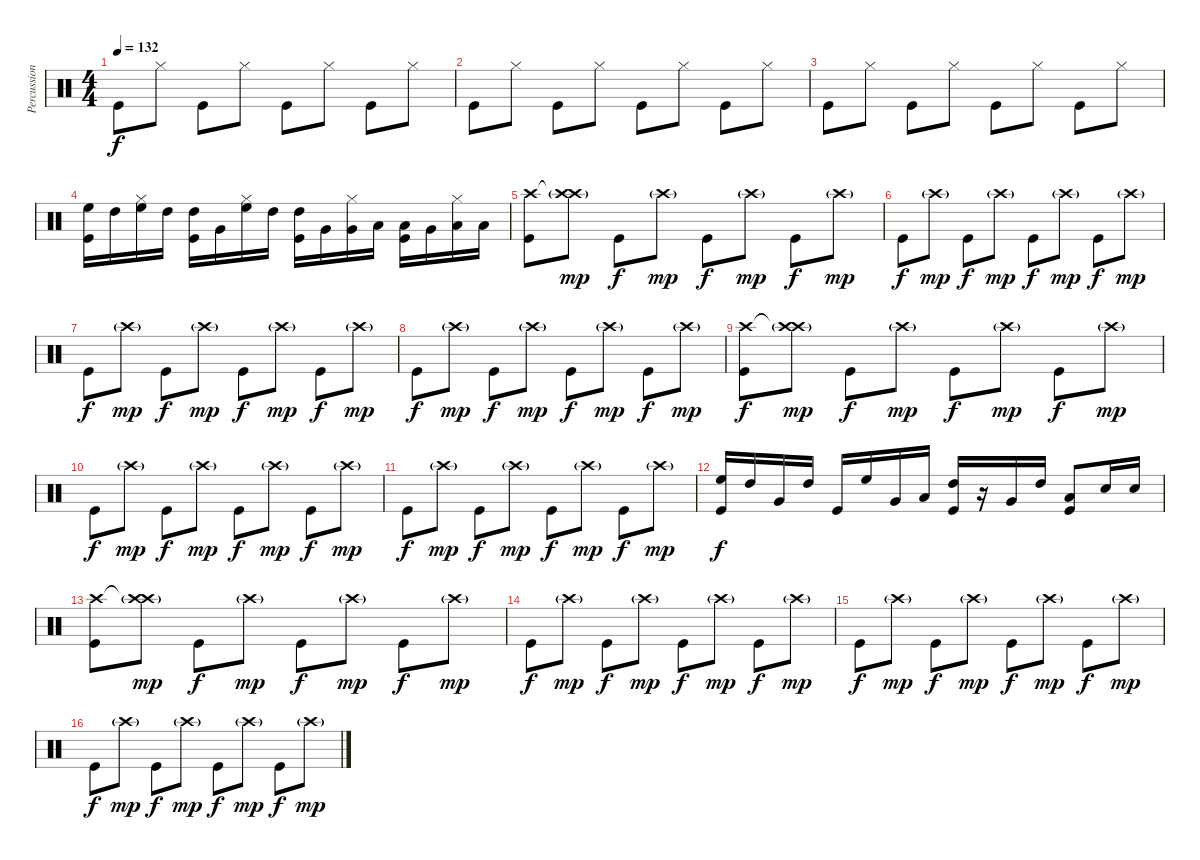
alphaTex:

\track ("Percussion" "Percussion") {instrument percussion}
\staff {score}
\articulation defaults
\ts (4 4)
\tempo 132
\clef neutral
\ks c "Kick (hit)".8{dy f} "Hi-Hat (closed)".8 "Kick (hit)".8 "Hi-Hat (closed)".8 "Kick (hit)".8 "Hi-Hat (closed)".8 "Kick (hit)".8 "Hi-Hat (closed)".8
|
"Kick (hit)".8 "Hi-Hat (closed)".8 "Kick (hit)".8 "Hi-Hat (closed)".8 "Kick (hit)".8 "Hi-Hat (closed)".8 "Kick (hit)".8 "Hi-Hat (closed)".8 |
"Kick (hit)".8 "Hi-Hat (closed)".8 "Kick (hit)".8 "Hi-Hat (closed)".8 "Kick (hit)".8 "Hi-Hat (closed)".8 "Kick (hit)".8 "Hi-Hat (closed)".8 |
("High Floor Tom (hit)" "Kick (hit)").16 "High Tom (hit)".16 ("Hi-Hat (closed)" "High Floor Tom (hit)").16 "High Tom (hit)".16 ("High Tom (hit)" "Kick (hit)").16 "Very Low Tom (hit)".16 ("Hi-Hat (closed)" "High Floor Tom (hit)").16 "High Tom (hit)".16 ("High Tom (hit)" "Kick (hit)").16 "Very Low Tom (hit)".16 ("Hi-Hat (closed)" "Very Low Tom (hit)").16 "Low Floor Tom (hit)".16 ("Low Floor Tom (hit)" "Kick (hit)").16 "Very Low Tom (hit)".16 ("Hi-Hat (closed)" "Low Tom (hit)").16 "Low Floor Tom (hit)".16 |
("Crash high (hit)" "Kick (hit)").8 ("Crash high (hit)"{t} "Crash high (hit)"{g}).8{dy mp} "Kick (hit)".8{dy f} "Crash high (hit)"{g}.8{dy mp} "Kick (hit)".8{dy f} "Crash high (hit)"{g}.8{dy mp} "Kick (hit)".8{dy f} "Crash high (hit)"{g}.8{dy mp} |
"Kick (hit)".8{dy f} "Crash high (hit)"{g}.8{dy mp} "Kick (hit)".8{dy f} "Crash high (hit)"{g}.8{dy mp} "Kick (hit)".8{dy f} "Crash high (hit)"{g}.8{dy mp} "Kick (hit)".8{dy f} "Crash high (hit)"{g}.8{dy mp} |
"Kick (hit)".8{dy f} "Crash high (hit)"{g}.8{dy mp} "Kick (hit)".8{dy f} "Crash high (hit)"{g}.8{dy mp} "Kick (hit)".8{dy f} "Crash high (hit)"{g}.8{dy mp} "Kick (hit)".8{dy f} "Crash high (hit)"{g}.8{dy mp} |
"Kick (hit)".8{dy f} "Crash high (hit)"{g}.8{dy mp} "Kick (hit)".8{dy f} "Crash high (hit)"{g}.8{dy mp} "Kick (hit)".8{dy f} "Crash high (hit)"{g}.8{dy mp} "Kick (hit)".8{dy f} "Crash high (hit)"{g}.8{dy mp} |
("Crash high (hit)" "Kick (hit)").8{dy f} ("Crash high (hit)"{t} "Crash high (hit)"{g}).8{dy mp} "Kick (hit)".8{dy f} "Crash high (hit)"{g}.8{dy mp} "Kick (hit)".8{dy f} "Crash high (hit)"{g}.8{dy mp} "Kick (hit)".8{dy f} "Crash high (hit)"{g}.8{dy mp} |
"Kick (hit)".8{dy f} "Crash high (hit)"{g}.8{dy mp} "Kick (hit)".8{dy f} "Crash high (hit)"{g}.8{dy mp} "Kick (hit)".8{dy f} "Crash high (hit)"{g}.8{dy mp} "Kick (hit)".8{dy f} "Crash high (hit)"{g}.8{dy mp} |
"Kick (hit)".8{dy f} "Crash high (hit)"{g}.8{dy mp} "Kick (hit)".8{dy f} "Crash high (hit)"{g}.8{dy mp} "Kick (hit)".8{dy f} "Crash high (hit)"{g}.8{dy mp} "Kick (hit)".8{dy f} "Crash high (hit)"{g}.8{dy mp} |
("High Floor Tom (hit)" "Kick (hit)").16{dy f} "High Tom (hit)".16 "Very Low Tom (hit)".16 "High Tom (hit)".16 "Kick (hit)".16 "High Floor Tom (hit)".16 "Very Low Tom (hit)".16 "Low Floor Tom (hit)".16 ("High Tom (hit)" "Kick (hit)").16 r.16 "Very Low Tom (hit)".16 "High Tom (hit)".16 ("Low Floor Tom (hit)" "Kick (hit)").8 "Electric Snare (hit)".16 "Electric Snare (hit)".16 |
("Crash high (hit)" "Kick (hit)").8 ("Crash high (hit)"{t} "Crash high (hit)"{g}).8{dy mp} "Kick (hit)".8{dy f} "Crash high (hit)"{g}.8{dy mp} "Kick (hit)".8{dy f} "Crash high (hit)"{g}.8{dy mp} "Kick (hit)".8{dy f} "Crash high (hit)"{g}.8{dy mp} |
"Kick (hit)".8{dy f} "Crash high (hit)"{g}.8{dy mp} "Kick (hit)".8{dy f} "Crash high (hit)"{g}.8{dy mp} "Kick (hit)".8{dy f} "Crash high (hit)"{g}.8{dy mp} "Kick (hit)".8{dy f} "Crash high (hit)"{g}.8{dy mp} |
"Kick (hit)".8{dy f} "Crash high (hit)"{g}.8{dy mp} "Kick (hit)".8{dy f} "Crash high (hit)"{g}.8{dy mp} "Kick (hit)".8{dy f} "Crash high (hit)"{g}.8{dy mp} "Kick (hit)".8{dy f} "Crash high (hit)"{g}.8{dy mp} |
"Kick (hit)".8{dy f} "Crash high (hit)"{g}.8{dy mp} "Kick (hit)".8{dy f} "Crash high (hit)"{g}.8{dy mp} "Kick (hit)".8{dy f} "Crash high (hit)"{g}.8{dy mp} "Kick (hit)".8{dy f} "Crash high (hit)"{g}.8{dy mp}
